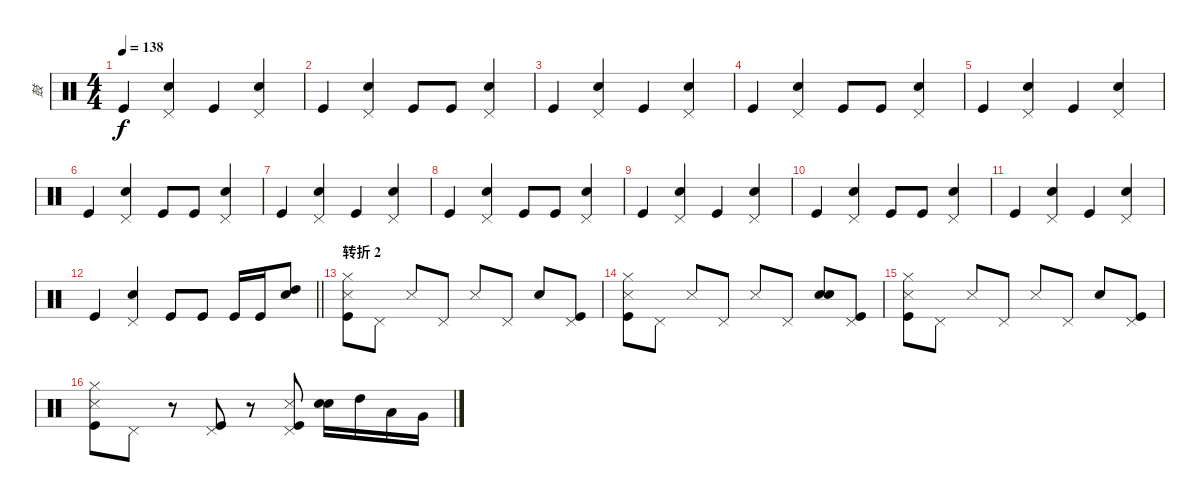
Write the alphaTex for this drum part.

\track ("鼓" "鼓") {instrument percussion}
\staff {score}
\articulation defaults
\ts (4 4)
\tempo 138
\clef neutral
\ks c "Kick (hit)".4{dy f}
("Snare (hit) 2" "Pedal Hi-Hat (hit)").4 "Kick (hit)".4 ("Snare (hit) 2" "Pedal Hi-Hat (hit)").4 |
"Kick (hit)".4 ("Snare (hit) 2" "Pedal Hi-Hat (hit)").4 "Kick (hit)".8 "Kick (hit)".8 ("Snare (hit) 2" "Pedal Hi-Hat (hit)").4 |
"Kick (hit)".4 ("Snare (hit) 2" "Pedal Hi-Hat (hit)").4 "Kick (hit)".4 ("Snare (hit) 2" "Pedal Hi-Hat (hit)").4 |
"Kick (hit)".4 ("Snare (hit) 2" "Pedal Hi-Hat (hit)").4 "Kick (hit)".8 "Kick (hit)".8 ("Snare (hit) 2" "Pedal Hi-Hat (hit)").4 |
"Kick (hit)".4 ("Snare (hit) 2" "Pedal Hi-Hat (hit)").4 "Kick (hit)".4 ("Snare (hit) 2" "Pedal Hi-Hat (hit)").4 |
"Kick (hit)".4 ("Snare (hit) 2" "Pedal Hi-Hat (hit)").4 "Kick (hit)".8 "Kick (hit)".8 ("Snare (hit) 2" "Pedal Hi-Hat (hit)").4 |
"Kick (hit)".4 ("Snare (hit) 2" "Pedal Hi-Hat (hit)").4 "Kick (hit)".4 ("Snare (hit) 2" "Pedal Hi-Hat (hit)").4 |
"Kick (hit)".4 ("Snare (hit) 2" "Pedal Hi-Hat (hit)").4 "Kick (hit)".8 "Kick (hit)".8 ("Snare (hit) 2" "Pedal Hi-Hat (hit)").4 |
"Kick (hit)".4 ("Snare (hit) 2" "Pedal Hi-Hat (hit)").4 "Kick (hit)".4 ("Snare (hit) 2" "Pedal Hi-Hat (hit)").4 |
"Kick (hit)".4 ("Snare (hit) 2" "Pedal Hi-Hat (hit)").4 "Kick (hit)".8 "Kick (hit)".8 ("Snare (hit) 2" "Pedal Hi-Hat (hit)").4 |
"Kick (hit)".4 ("Snare (hit) 2" "Pedal Hi-Hat (hit)").4 "Kick (hit)".4 ("Snare (hit) 2" "Pedal Hi-Hat (hit)").4 |
\barLineRight lightlight "Kick (hit)".4
("Snare (hit) 2" "Pedal Hi-Hat (hit)").4 "Kick (hit)".8 "Kick (hit)".8 "Kick (hit)".16 "Kick (hit)".16 ("Snare (hit) 2" "High Tom (hit)").8 |
\section ("" "转折 2")
("Snare (side stick) 3" "Kick (hit)" "Hi-Hat (closed)").8 "Pedal Hi-Hat (hit)".8 "Snare (side stick) 3".8 "Pedal Hi-Hat (hit)".8 "Snare (side stick) 3".8 "Pedal Hi-Hat (hit)".8 "Hand Clap (hit)".8 ("Kick (hit)" "Pedal Hi-Hat (hit)").8 |
("Snare (side stick) 3" "Kick (hit)" "Hi-Hat (closed)").8 "Pedal Hi-Hat (hit)".8 "Snare (side stick) 3".8 "Pedal Hi-Hat (hit)".8 "Snare (side stick) 3".8 "Pedal Hi-Hat (hit)".8 ("Hand Clap (hit)" "Snare (hit) 2").8 ("Kick (hit)" "Pedal Hi-Hat (hit)").8 |
("Snare (side stick) 3" "Kick (hit)" "Hi-Hat (closed)").8 "Pedal Hi-Hat (hit)".8 "Snare (side stick) 3".8 "Pedal Hi-Hat (hit)".8 "Snare (side stick) 3".8 "Pedal Hi-Hat (hit)".8 "Hand Clap (hit)".8 ("Kick (hit)" "Pedal Hi-Hat (hit)").8 |
("Snare (side stick) 3" "Kick (hit)" "Hi-Hat (closed)").8 "Pedal Hi-Hat (hit)".8 r.8 ("Kick (hit)" "Pedal Hi-Hat (hit)").8 r.8 ("Snare (side stick) 3" "Kick (hit)" "Pedal Hi-Hat (hit)").8 ("Hand Clap (hit)" "Electric Snare (hit)").16 "High Tom (hit)".16 "Low Tom (hit)".16 "Very Low Tom (hit)".16
